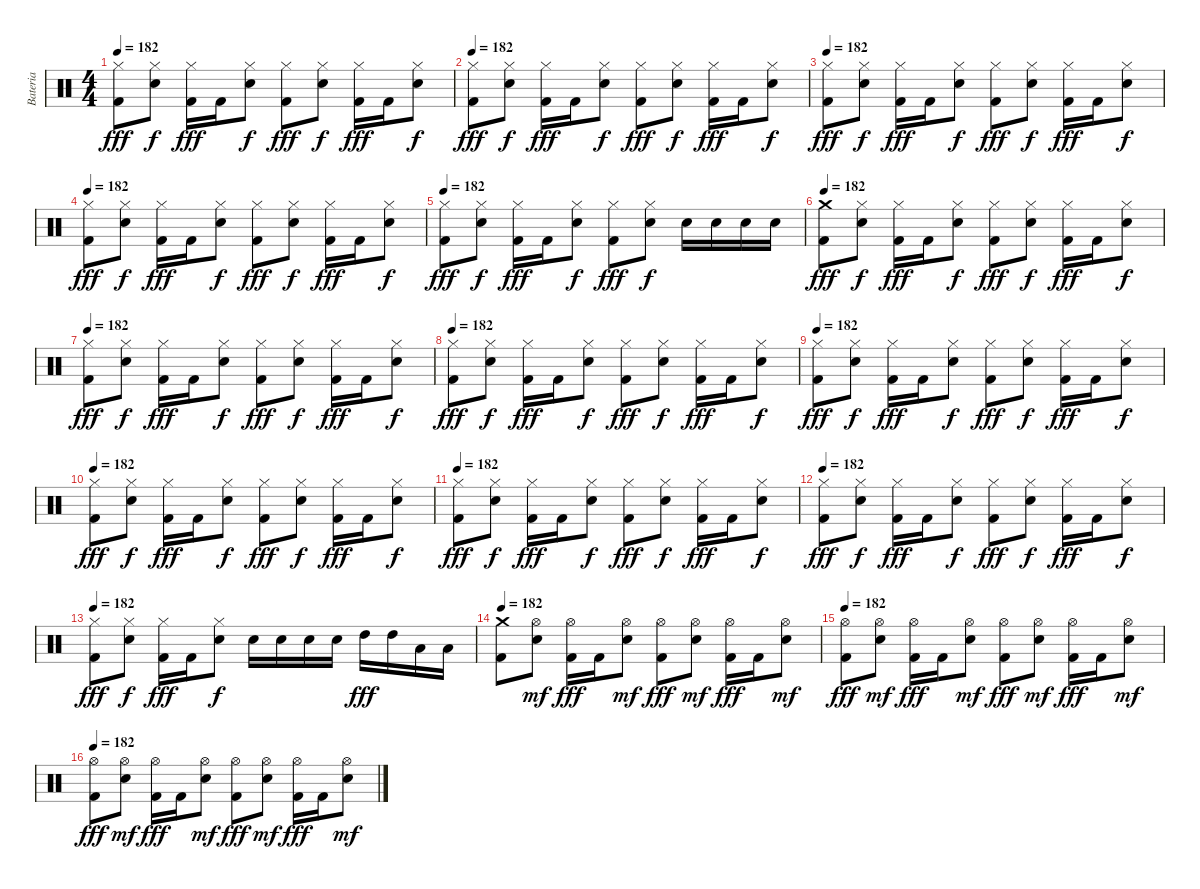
\track ("Bateria" "Bateria") {instrument percussion}
\staff {score}
\articulation defaults
\ts (4 4)
\tempo 182
\clef neutral
\ks c
("Hi-Hat (closed)" "Kick (hit) 2").8{dy fff} ("Hi-Hat (closed)" "Electric Snare (hit)").8{dy f} ("Hi-Hat (closed)" "Kick (hit) 2").16{dy fff} "Kick (hit) 2".16 ("Hi-Hat (closed)" "Electric Snare (hit)").8{dy f} ("Hi-Hat (closed)" "Kick (hit) 2").8{dy fff} ("Hi-Hat (closed)" "Electric Snare (hit)").8{dy f} ("Hi-Hat (closed)" "Kick (hit) 2").16{dy fff} "Kick (hit) 2".16 ("Hi-Hat (closed)" "Electric Snare (hit)").8{dy f} |
\tempo 182
("Hi-Hat (closed)" "Kick (hit) 2").8{dy fff} ("Hi-Hat (closed)" "Electric Snare (hit)").8{dy f} ("Hi-Hat (closed)" "Kick (hit) 2").16{dy fff} "Kick (hit) 2".16 ("Hi-Hat (closed)" "Electric Snare (hit)").8{dy f} ("Hi-Hat (closed)" "Kick (hit) 2").8{dy fff} ("Hi-Hat (closed)" "Electric Snare (hit)").8{dy f} ("Hi-Hat (closed)" "Kick (hit) 2").16{dy fff} "Kick (hit) 2".16 ("Hi-Hat (closed)" "Electric Snare (hit)").8{dy f} |
\tempo 182
("Hi-Hat (closed)" "Kick (hit) 2").8{dy fff} ("Hi-Hat (closed)" "Electric Snare (hit)").8{dy f} ("Hi-Hat (closed)" "Kick (hit) 2").16{dy fff} "Kick (hit) 2".16 ("Hi-Hat (closed)" "Electric Snare (hit)").8{dy f} ("Hi-Hat (closed)" "Kick (hit) 2").8{dy fff} ("Hi-Hat (closed)" "Electric Snare (hit)").8{dy f} ("Hi-Hat (closed)" "Kick (hit) 2").16{dy fff} "Kick (hit) 2".16 ("Hi-Hat (closed)" "Electric Snare (hit)").8{dy f} |
\tempo 182
("Hi-Hat (closed)" "Kick (hit) 2").8{dy fff} ("Hi-Hat (closed)" "Electric Snare (hit)").8{dy f} ("Hi-Hat (closed)" "Kick (hit) 2").16{dy fff} "Kick (hit) 2".16 ("Hi-Hat (closed)" "Electric Snare (hit)").8{dy f} ("Hi-Hat (closed)" "Kick (hit) 2").8{dy fff} ("Hi-Hat (closed)" "Electric Snare (hit)").8{dy f} ("Hi-Hat (closed)" "Kick (hit) 2").16{dy fff} "Kick (hit) 2".16 ("Hi-Hat (closed)" "Electric Snare (hit)").8{dy f} |
\tempo 182
("Hi-Hat (closed)" "Kick (hit) 2").8{dy fff} ("Hi-Hat (closed)" "Electric Snare (hit)").8{dy f} ("Hi-Hat (closed)" "Kick (hit) 2").16{dy fff} "Kick (hit) 2".16 ("Hi-Hat (closed)" "Electric Snare (hit)").8{dy f} ("Hi-Hat (closed)" "Kick (hit) 2").8{dy fff} ("Hi-Hat (closed)" "Electric Snare (hit)").8{dy f} "Electric Snare (hit)".16 "Electric Snare (hit)".16 "Electric Snare (hit)".16 "Electric Snare (hit)".16 |
\tempo 182
("Crash medium (hit)" "Kick (hit) 2").8{dy fff} ("Hi-Hat (closed)" "Electric Snare (hit)").8{dy f} ("Hi-Hat (closed)" "Kick (hit) 2").16{dy fff} "Kick (hit) 2".16 ("Hi-Hat (closed)" "Electric Snare (hit)").8{dy f} ("Hi-Hat (closed)" "Kick (hit) 2").8{dy fff} ("Hi-Hat (closed)" "Electric Snare (hit)").8{dy f} ("Hi-Hat (closed)" "Kick (hit) 2").16{dy fff} "Kick (hit) 2".16 ("Hi-Hat (closed)" "Electric Snare (hit)").8{dy f} |
\tempo 182
("Hi-Hat (closed)" "Kick (hit) 2").8{dy fff} ("Hi-Hat (closed)" "Electric Snare (hit)").8{dy f} ("Hi-Hat (closed)" "Kick (hit) 2").16{dy fff} "Kick (hit) 2".16 ("Hi-Hat (closed)" "Electric Snare (hit)").8{dy f} ("Hi-Hat (closed)" "Kick (hit) 2").8{dy fff} ("Hi-Hat (closed)" "Electric Snare (hit)").8{dy f} ("Hi-Hat (closed)" "Kick (hit) 2").16{dy fff} "Kick (hit) 2".16 ("Hi-Hat (closed)" "Electric Snare (hit)").8{dy f} |
\tempo 182
("Hi-Hat (closed)" "Kick (hit) 2").8{dy fff} ("Hi-Hat (closed)" "Electric Snare (hit)").8{dy f} ("Hi-Hat (closed)" "Kick (hit) 2").16{dy fff} "Kick (hit) 2".16 ("Hi-Hat (closed)" "Electric Snare (hit)").8{dy f} ("Hi-Hat (closed)" "Kick (hit) 2").8{dy fff} ("Hi-Hat (closed)" "Electric Snare (hit)").8{dy f} ("Hi-Hat (closed)" "Kick (hit) 2").16{dy fff} "Kick (hit) 2".16 ("Hi-Hat (closed)" "Electric Snare (hit)").8{dy f} |
\tempo 182
("Hi-Hat (closed)" "Kick (hit) 2").8{dy fff} ("Hi-Hat (closed)" "Electric Snare (hit)").8{dy f} ("Hi-Hat (closed)" "Kick (hit) 2").16{dy fff} "Kick (hit) 2".16 ("Hi-Hat (closed)" "Electric Snare (hit)").8{dy f} ("Hi-Hat (closed)" "Kick (hit) 2").8{dy fff} ("Hi-Hat (closed)" "Electric Snare (hit)").8{dy f} ("Hi-Hat (closed)" "Kick (hit) 2").16{dy fff} "Kick (hit) 2".16 ("Hi-Hat (closed)" "Electric Snare (hit)").8{dy f} |
\tempo 182
("Hi-Hat (closed)" "Kick (hit) 2").8{dy fff} ("Hi-Hat (closed)" "Electric Snare (hit)").8{dy f} ("Hi-Hat (closed)" "Kick (hit) 2").16{dy fff} "Kick (hit) 2".16 ("Hi-Hat (closed)" "Electric Snare (hit)").8{dy f} ("Hi-Hat (closed)" "Kick (hit) 2").8{dy fff} ("Hi-Hat (closed)" "Electric Snare (hit)").8{dy f} ("Hi-Hat (closed)" "Kick (hit) 2").16{dy fff} "Kick (hit) 2".16 ("Hi-Hat (closed)" "Electric Snare (hit)").8{dy f} |
\tempo 182
("Hi-Hat (closed)" "Kick (hit) 2").8{dy fff} ("Hi-Hat (closed)" "Electric Snare (hit)").8{dy f} ("Hi-Hat (closed)" "Kick (hit) 2").16{dy fff} "Kick (hit) 2".16 ("Hi-Hat (closed)" "Electric Snare (hit)").8{dy f} ("Hi-Hat (closed)" "Kick (hit) 2").8{dy fff} ("Hi-Hat (closed)" "Electric Snare (hit)").8{dy f} ("Hi-Hat (closed)" "Kick (hit) 2").16{dy fff} "Kick (hit) 2".16 ("Hi-Hat (closed)" "Electric Snare (hit)").8{dy f} |
\tempo 182
("Hi-Hat (closed)" "Kick (hit) 2").8{dy fff} ("Hi-Hat (closed)" "Electric Snare (hit)").8{dy f} ("Hi-Hat (closed)" "Kick (hit) 2").16{dy fff} "Kick (hit) 2".16 ("Hi-Hat (closed)" "Electric Snare (hit)").8{dy f} ("Hi-Hat (closed)" "Kick (hit) 2").8{dy fff} ("Hi-Hat (closed)" "Electric Snare (hit)").8{dy f} ("Hi-Hat (closed)" "Kick (hit) 2").16{dy fff} "Kick (hit) 2".16 ("Hi-Hat (closed)" "Electric Snare (hit)").8{dy f} |
\tempo 182
("Hi-Hat (closed)" "Kick (hit) 2").8{dy fff} ("Hi-Hat (closed)" "Electric Snare (hit)").8{dy f} ("Hi-Hat (closed)" "Kick (hit) 2").16{dy fff} "Kick (hit) 2".16 ("Hi-Hat (closed)" "Electric Snare (hit)").8{dy f} "Electric Snare (hit)".16 "Electric Snare (hit)".16 "Electric Snare (hit)".16 "Electric Snare (hit)".16 "High Tom (hit)".16{dy fff} "High Tom (hit)".16 "Low Tom (hit)".16 "Low Tom (hit)".16 |
\tempo 182
("Crash medium (hit)" "Kick (hit) 2").8 ("Hi-Hat (open)" "Electric Snare (hit)").8{dy mf} ("Hi-Hat (open)" "Kick (hit) 2").16{dy fff} "Kick (hit) 2".16 ("Hi-Hat (open)" "Electric Snare (hit)").8{dy mf} ("Hi-Hat (open)" "Kick (hit) 2").8{dy fff} ("Hi-Hat (open)" "Electric Snare (hit)").8{dy mf} ("Hi-Hat (open)" "Kick (hit) 2").16{dy fff} "Kick (hit) 2".16 ("Hi-Hat (open)" "Electric Snare (hit)").8{dy mf} |
\tempo 182
("Hi-Hat (open)" "Kick (hit) 2").8{dy fff} ("Hi-Hat (open)" "Electric Snare (hit)").8{dy mf} ("Hi-Hat (open)" "Kick (hit) 2").16{dy fff} "Kick (hit) 2".16 ("Hi-Hat (open)" "Electric Snare (hit)").8{dy mf} ("Hi-Hat (open)" "Kick (hit) 2").8{dy fff} ("Hi-Hat (open)" "Electric Snare (hit)").8{dy mf} ("Hi-Hat (open)" "Kick (hit) 2").16{dy fff} "Kick (hit) 2".16 ("Hi-Hat (open)" "Electric Snare (hit)").8{dy mf} |
\tempo 182
("Hi-Hat (open)" "Kick (hit) 2").8{dy fff} ("Hi-Hat (open)" "Electric Snare (hit)").8{dy mf} ("Hi-Hat (open)" "Kick (hit) 2").16{dy fff} "Kick (hit) 2".16 ("Hi-Hat (open)" "Electric Snare (hit)").8{dy mf} ("Hi-Hat (open)" "Kick (hit) 2").8{dy fff} ("Hi-Hat (open)" "Electric Snare (hit)").8{dy mf} ("Hi-Hat (open)" "Kick (hit) 2").16{dy fff} "Kick (hit) 2".16 ("Hi-Hat (open)" "Electric Snare (hit)").8{dy mf}
